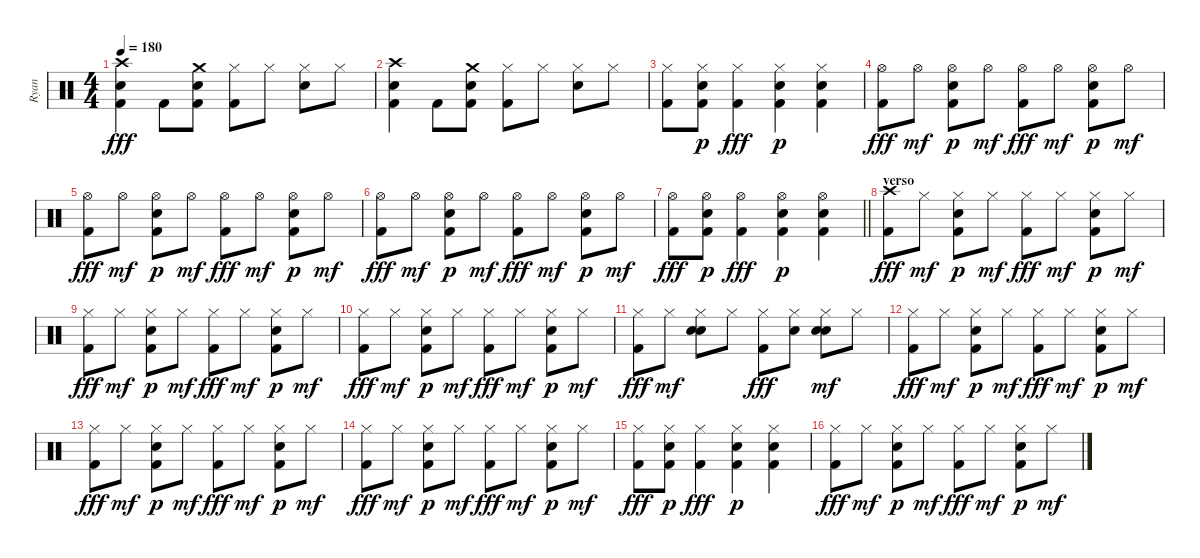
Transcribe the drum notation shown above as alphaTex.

\track ("Ryan" "Ryan") {instrument percussion}
\staff {score}
\articulation defaults
\ts (4 4)
\tempo 180
\clef neutral
\ks c
("Kick (hit) 2" "Snare (hit) 2" "Crash high (hit)").4{dy fff} "Kick (hit) 2".8 ("Kick (hit) 2" "Snare (hit) 2" "Crash medium (hit)").8 ("Kick (hit) 2" "Hi-Hat (closed)").8 "Hi-Hat (closed)".8 ("Snare (hit) 2" "Hi-Hat (closed)").8 "Hi-Hat (closed)".8 |
("Kick (hit) 2" "Snare (hit) 2" "Crash high (hit)").4 "Kick (hit) 2".8 ("Kick (hit) 2" "Snare (hit) 2" "Crash medium (hit)").8 ("Kick (hit) 2" "Hi-Hat (closed)").8 "Hi-Hat (closed)".8 ("Snare (hit) 2" "Hi-Hat (closed)").8 "Hi-Hat (closed)".8 |
("Kick (hit) 2" "Hi-Hat (closed)").8 ("Snare (hit) 2" "Hi-Hat (closed)" "Kick (hit) 2").8{dy p} ("Kick (hit) 2" "Hi-Hat (closed)").4{dy fff} ("Snare (hit) 2" "Hi-Hat (closed)" "Kick (hit) 2").4{dy p} ("Snare (hit) 2" "Hi-Hat (closed)" "Kick (hit) 2").4 |
("Kick (hit) 2" "Hi-Hat (open)").8{dy fff} "Hi-Hat (open)".8{dy mf} ("Snare (hit) 2" "Hi-Hat (open)" "Kick (hit) 2").8{dy p} "Hi-Hat (open)".8{dy mf} ("Kick (hit) 2" "Hi-Hat (open)").8{dy fff} "Hi-Hat (open)".8{dy mf} ("Snare (hit) 2" "Hi-Hat (open)" "Kick (hit) 2").8{dy p} "Hi-Hat (open)".8{dy mf} |
("Kick (hit) 2" "Hi-Hat (open)").8{dy fff} "Hi-Hat (open)".8{dy mf} ("Snare (hit) 2" "Hi-Hat (open)" "Kick (hit) 2").8{dy p} "Hi-Hat (open)".8{dy mf} ("Kick (hit) 2" "Hi-Hat (open)").8{dy fff} "Hi-Hat (open)".8{dy mf} ("Snare (hit) 2" "Hi-Hat (open)" "Kick (hit) 2").8{dy p} "Hi-Hat (open)".8{dy mf} |
("Kick (hit) 2" "Hi-Hat (open)").8{dy fff} "Hi-Hat (open)".8{dy mf} ("Snare (hit) 2" "Hi-Hat (open)" "Kick (hit) 2").8{dy p} "Hi-Hat (open)".8{dy mf} ("Kick (hit) 2" "Hi-Hat (open)").8{dy fff} "Hi-Hat (open)".8{dy mf} ("Snare (hit) 2" "Hi-Hat (open)" "Kick (hit) 2").8{dy p} "Hi-Hat (open)".8{dy mf} |
\barLineRight lightlight
("Kick (hit) 2" "Hi-Hat (open)").8{dy fff} ("Snare (hit) 2" "Hi-Hat (open)" "Kick (hit) 2").8{dy p} ("Kick (hit) 2" "Hi-Hat (open)").4{dy fff} ("Snare (hit) 2" "Hi-Hat (open)" "Kick (hit) 2").4{dy p} ("Snare (hit) 2" "Hi-Hat (open)" "Kick (hit) 2").4 |
\section ("" "verso")
("Kick (hit) 2" "Crash high (hit)").8{dy fff} "Hi-Hat (closed)".8{dy mf} ("Snare (hit) 2" "Hi-Hat (closed)" "Kick (hit) 2").8{dy p} "Hi-Hat (closed)".8{dy mf} ("Kick (hit) 2" "Hi-Hat (closed)").8{dy fff} "Hi-Hat (closed)".8{dy mf} ("Snare (hit) 2" "Hi-Hat (closed)" "Kick (hit) 2").8{dy p} "Hi-Hat (closed)".8{dy mf} |
("Kick (hit) 2" "Hi-Hat (closed)").8{dy fff} "Hi-Hat (closed)".8{dy mf} ("Snare (hit) 2" "Hi-Hat (closed)" "Kick (hit) 2").8{dy p} "Hi-Hat (closed)".8{dy mf} ("Kick (hit) 2" "Hi-Hat (closed)").8{dy fff} "Hi-Hat (closed)".8{dy mf} ("Snare (hit) 2" "Hi-Hat (closed)" "Kick (hit) 2").8{dy p} "Hi-Hat (closed)".8{dy mf} |
("Kick (hit) 2" "Hi-Hat (closed)").8{dy fff} "Hi-Hat (closed)".8{dy mf} ("Snare (hit) 2" "Hi-Hat (closed)" "Kick (hit) 2").8{dy p} "Hi-Hat (closed)".8{dy mf} ("Kick (hit) 2" "Hi-Hat (closed)").8{dy fff} "Hi-Hat (closed)".8{dy mf} ("Snare (hit) 2" "Hi-Hat (closed)" "Kick (hit) 2").8{dy p} "Hi-Hat (closed)".8{dy mf} |
("Kick (hit) 2" "Hi-Hat (closed)").8{dy fff} "Hi-Hat (closed)".8{dy mf} ("Snare (hit) 2" "Hi-Hat (closed)" "Hand Clap (hit)").8 "Hi-Hat (closed)".8 ("Kick (hit) 2" "Hi-Hat (closed)").8{dy fff} ("Snare (hit) 2" "Hi-Hat (closed)").8 ("Snare (hit) 2" "Hi-Hat (closed)" "Hand Clap (hit)").8{dy mf} "Hi-Hat (closed)".8 |
("Kick (hit) 2" "Hi-Hat (closed)").8{dy fff} "Hi-Hat (closed)".8{dy mf} ("Snare (hit) 2" "Hi-Hat (closed)" "Kick (hit) 2").8{dy p} "Hi-Hat (closed)".8{dy mf} ("Kick (hit) 2" "Hi-Hat (closed)").8{dy fff} "Hi-Hat (closed)".8{dy mf} ("Snare (hit) 2" "Hi-Hat (closed)" "Kick (hit) 2").8{dy p} "Hi-Hat (closed)".8{dy mf} |
("Kick (hit) 2" "Hi-Hat (closed)").8{dy fff} "Hi-Hat (closed)".8{dy mf} ("Snare (hit) 2" "Hi-Hat (closed)" "Kick (hit) 2").8{dy p} "Hi-Hat (closed)".8{dy mf} ("Kick (hit) 2" "Hi-Hat (closed)").8{dy fff} "Hi-Hat (closed)".8{dy mf} ("Snare (hit) 2" "Hi-Hat (closed)" "Kick (hit) 2").8{dy p} "Hi-Hat (closed)".8{dy mf} |
("Kick (hit) 2" "Hi-Hat (closed)").8{dy fff} "Hi-Hat (closed)".8{dy mf} ("Snare (hit) 2" "Hi-Hat (closed)" "Kick (hit) 2").8{dy p} "Hi-Hat (closed)".8{dy mf} ("Kick (hit) 2" "Hi-Hat (closed)").8{dy fff} "Hi-Hat (closed)".8{dy mf} ("Snare (hit) 2" "Hi-Hat (closed)" "Kick (hit) 2").8{dy p} "Hi-Hat (closed)".8{dy mf} |
("Kick (hit) 2" "Hi-Hat (closed)").8{dy fff} ("Snare (hit) 2" "Hi-Hat (closed)" "Kick (hit) 2").8{dy p} ("Kick (hit) 2" "Hi-Hat (closed)").4{dy fff} ("Snare (hit) 2" "Hi-Hat (closed)" "Kick (hit) 2").4{dy p} ("Snare (hit) 2" "Hi-Hat (closed)" "Kick (hit) 2").4 |
("Kick (hit) 2" "Hi-Hat (closed)").8{dy fff} "Hi-Hat (closed)".8{dy mf} ("Snare (hit) 2" "Hi-Hat (closed)" "Kick (hit) 2").8{dy p} "Hi-Hat (closed)".8{dy mf} ("Kick (hit) 2" "Hi-Hat (closed)").8{dy fff} "Hi-Hat (closed)".8{dy mf} ("Snare (hit) 2" "Hi-Hat (closed)" "Kick (hit) 2").8{dy p} "Hi-Hat (closed)".8{dy mf}
